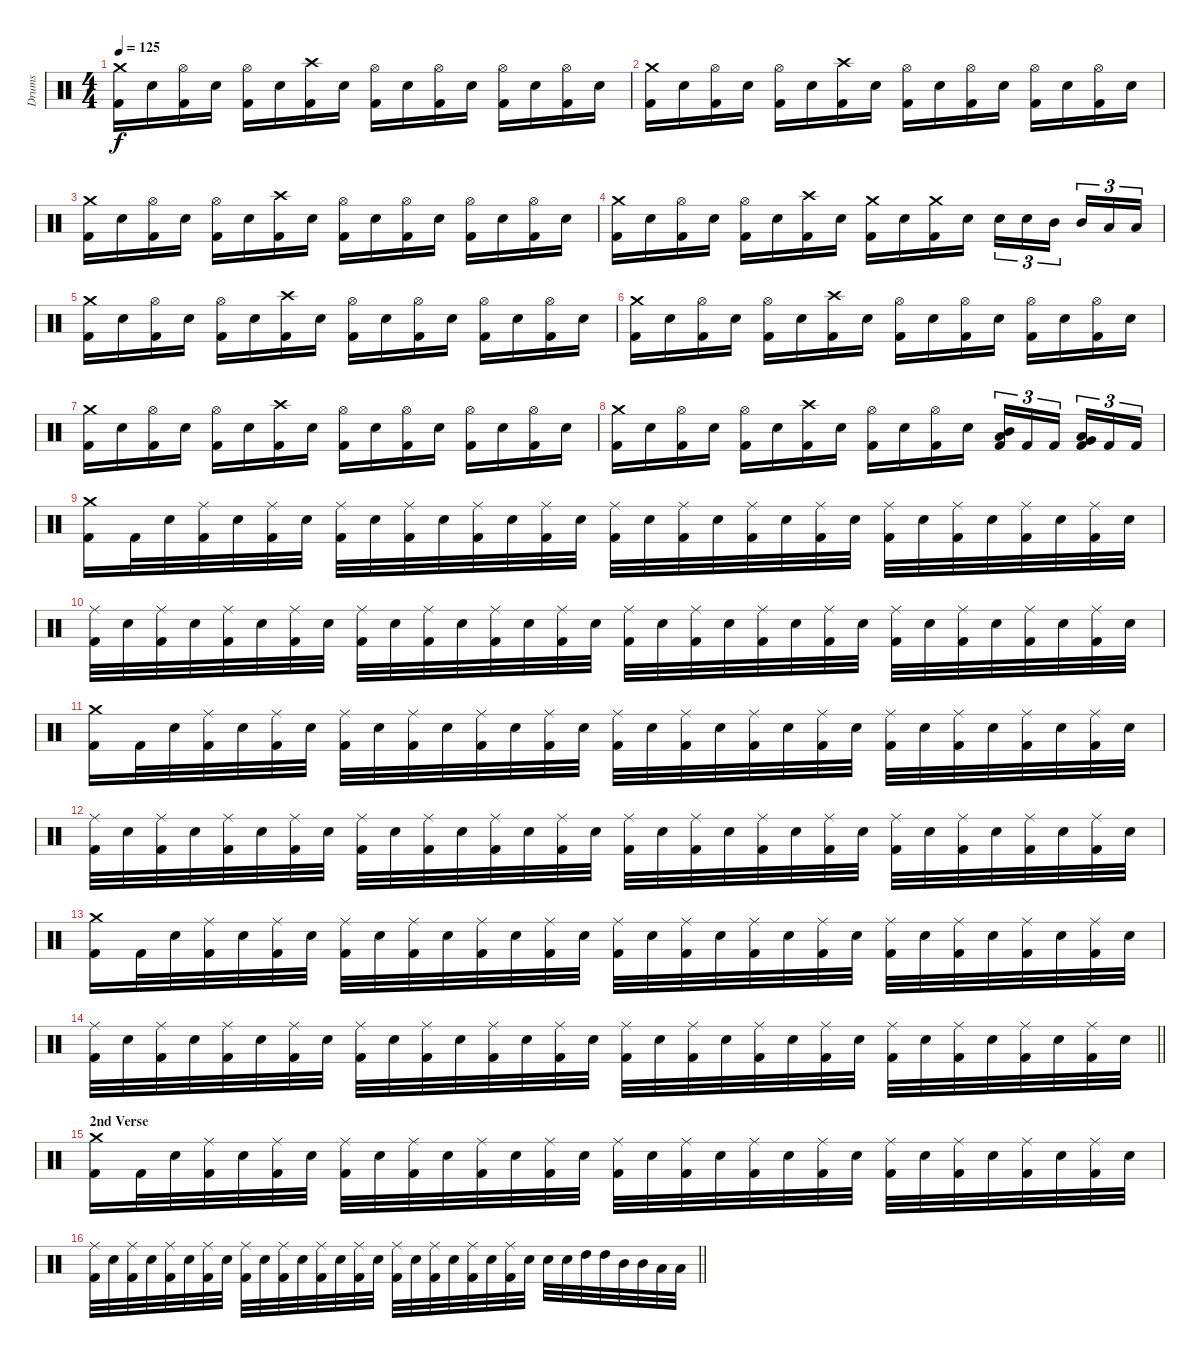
\track ("Drums" "Drums") {instrument percussion}
\staff {score}
\articulation defaults
\ts (4 4)
\tempo 125
\clef neutral
\ks c
("Kick (hit) 2" "Crash medium (hit)").16{dy f} "Electric Snare (hit)".16 ("Kick (hit) 2" "Hi-Hat (open)").16 "Electric Snare (hit)".16 ("Kick (hit) 2" "Hi-Hat (open)").16 "Electric Snare (hit)".16 ("Kick (hit) 2" "Crash high (hit)").16 "Electric Snare (hit)".16 ("Kick (hit) 2" "Hi-Hat (open)").16 "Electric Snare (hit)".16 ("Kick (hit) 2" "Hi-Hat (open)").16 "Electric Snare (hit)".16 ("Kick (hit) 2" "Hi-Hat (open)").16 "Electric Snare (hit)".16 ("Kick (hit) 2" "Hi-Hat (open)").16 "Electric Snare (hit)".16 |
("Kick (hit) 2" "Crash medium (hit)").16 "Electric Snare (hit)".16 ("Kick (hit) 2" "Hi-Hat (open)").16 "Electric Snare (hit)".16 ("Kick (hit) 2" "Hi-Hat (open)").16 "Electric Snare (hit)".16 ("Kick (hit) 2" "Crash high (hit)").16 "Electric Snare (hit)".16 ("Kick (hit) 2" "Hi-Hat (open)").16 "Electric Snare (hit)".16 ("Kick (hit) 2" "Hi-Hat (open)").16 "Electric Snare (hit)".16 ("Kick (hit) 2" "Hi-Hat (open)").16 "Electric Snare (hit)".16 ("Kick (hit) 2" "Hi-Hat (open)").16 "Electric Snare (hit)".16 |
("Kick (hit) 2" "Crash medium (hit)").16 "Electric Snare (hit)".16 ("Kick (hit) 2" "Hi-Hat (open)").16 "Electric Snare (hit)".16 ("Kick (hit) 2" "Hi-Hat (open)").16 "Electric Snare (hit)".16 ("Kick (hit) 2" "Crash high (hit)").16 "Electric Snare (hit)".16 ("Kick (hit) 2" "Hi-Hat (open)").16 "Electric Snare (hit)".16 ("Kick (hit) 2" "Hi-Hat (open)").16 "Electric Snare (hit)".16 ("Kick (hit) 2" "Hi-Hat (open)").16 "Electric Snare (hit)".16 ("Kick (hit) 2" "Hi-Hat (open)").16 "Electric Snare (hit)".16 |
("Kick (hit) 2" "Crash medium (hit)").16 "Electric Snare (hit)".16 ("Kick (hit) 2" "Hi-Hat (open)").16 "Electric Snare (hit)".16 ("Kick (hit) 2" "Hi-Hat (open)").16 "Electric Snare (hit)".16 ("Kick (hit) 2" "Crash high (hit)").16 "Electric Snare (hit)".16 ("Kick (hit) 2" "Crash medium (hit)").16 "Electric Snare (hit)".16 ("Kick (hit) 2" "Crash medium (hit)").16 "Electric Snare (hit)".16 "Electric Snare (hit)".16{tu (3 2)} "Electric Snare (hit)".16{tu (3 2)} "Mid Tom (hit)".16{tu (3 2)} "Mid Tom (hit)".16{tu (3 2)} "Low Tom (hit)".16{tu (3 2)} "Low Tom (hit)".16{tu (3 2)} |
("Kick (hit) 2" "Crash medium (hit)").16 "Electric Snare (hit)".16 ("Kick (hit) 2" "Hi-Hat (open)").16 "Electric Snare (hit)".16 ("Kick (hit) 2" "Hi-Hat (open)").16 "Electric Snare (hit)".16 ("Kick (hit) 2" "Crash high (hit)").16 "Electric Snare (hit)".16 ("Kick (hit) 2" "Hi-Hat (open)").16 "Electric Snare (hit)".16 ("Kick (hit) 2" "Hi-Hat (open)").16 "Electric Snare (hit)".16 ("Kick (hit) 2" "Hi-Hat (open)").16 "Electric Snare (hit)".16 ("Kick (hit) 2" "Hi-Hat (open)").16 "Electric Snare (hit)".16 |
("Kick (hit) 2" "Crash medium (hit)").16 "Electric Snare (hit)".16 ("Kick (hit) 2" "Hi-Hat (open)").16 "Electric Snare (hit)".16 ("Kick (hit) 2" "Hi-Hat (open)").16 "Electric Snare (hit)".16 ("Kick (hit) 2" "Crash high (hit)").16 "Electric Snare (hit)".16 ("Kick (hit) 2" "Hi-Hat (open)").16 "Electric Snare (hit)".16 ("Kick (hit) 2" "Hi-Hat (open)").16 "Electric Snare (hit)".16 ("Kick (hit) 2" "Hi-Hat (open)").16 "Electric Snare (hit)".16 ("Kick (hit) 2" "Hi-Hat (open)").16 "Electric Snare (hit)".16 |
("Kick (hit) 2" "Crash medium (hit)").16 "Electric Snare (hit)".16 ("Kick (hit) 2" "Hi-Hat (open)").16 "Electric Snare (hit)".16 ("Kick (hit) 2" "Hi-Hat (open)").16 "Electric Snare (hit)".16 ("Kick (hit) 2" "Crash high (hit)").16 "Electric Snare (hit)".16 ("Kick (hit) 2" "Hi-Hat (open)").16 "Electric Snare (hit)".16 ("Kick (hit) 2" "Hi-Hat (open)").16 "Electric Snare (hit)".16 ("Kick (hit) 2" "Hi-Hat (open)").16 "Electric Snare (hit)".16 ("Kick (hit) 2" "Hi-Hat (open)").16 "Electric Snare (hit)".16 |
("Kick (hit) 2" "Crash medium (hit)").16 "Electric Snare (hit)".16 ("Kick (hit) 2" "Hi-Hat (open)").16 "Electric Snare (hit)".16 ("Kick (hit) 2" "Hi-Hat (open)").16 "Electric Snare (hit)".16 ("Kick (hit) 2" "Crash high (hit)").16 "Electric Snare (hit)".16 ("Kick (hit) 2" "Hi-Hat (open)").16 "Electric Snare (hit)".16 ("Kick (hit) 2" "Hi-Hat (open)").16 "Electric Snare (hit)".16 ("Kick (hit) 2" "Mid Tom (hit)" "Low Tom (hit)").16{tu (3 2)} "Kick (hit) 2".16{tu (3 2)} "Kick (hit) 2".16{tu (3 2)} ("Kick (hit) 2" "Low Tom (hit)" "Very Low Tom (hit)").16{tu (3 2)} "Kick (hit) 2".16{tu (3 2)} "Kick (hit) 2".16{tu (3 2)} |
("Kick (hit) 2" "Crash medium (hit)").16 "Kick (hit) 2".32 "Electric Snare (hit)".32 ("Kick (hit) 2" "Ride (middle)").32 "Electric Snare (hit)".32 ("Kick (hit) 2" "Ride (middle)").32 "Electric Snare (hit)".32 ("Kick (hit) 2" "Ride (middle)").32 "Electric Snare (hit)".32 ("Kick (hit) 2" "Ride (middle)").32 "Electric Snare (hit)".32 ("Kick (hit) 2" "Ride (middle)").32 "Electric Snare (hit)".32 ("Kick (hit) 2" "Ride (middle)").32 "Electric Snare (hit)".32 ("Kick (hit) 2" "Ride (middle)").32 "Electric Snare (hit)".32 ("Kick (hit) 2" "Ride (middle)").32 "Electric Snare (hit)".32 ("Kick (hit) 2" "Ride (middle)").32 "Electric Snare (hit)".32 ("Kick (hit) 2" "Ride (middle)").32 "Electric Snare (hit)".32 ("Kick (hit) 2" "Ride (middle)").32 "Electric Snare (hit)".32 ("Kick (hit) 2" "Ride (middle)").32 "Electric Snare (hit)".32 ("Kick (hit) 2" "Ride (middle)").32 "Electric Snare (hit)".32 ("Kick (hit) 2" "Ride (middle)").32 "Electric Snare (hit)".32 |
("Kick (hit) 2" "Ride (middle)").32 "Electric Snare (hit)".32 ("Kick (hit) 2" "Ride (middle)").32 "Electric Snare (hit)".32 ("Kick (hit) 2" "Ride (middle)").32 "Electric Snare (hit)".32 ("Kick (hit) 2" "Ride (middle)").32 "Electric Snare (hit)".32 ("Kick (hit) 2" "Ride (middle)").32 "Electric Snare (hit)".32 ("Kick (hit) 2" "Ride (middle)").32 "Electric Snare (hit)".32 ("Kick (hit) 2" "Ride (middle)").32 "Electric Snare (hit)".32 ("Kick (hit) 2" "Ride (middle)").32 "Electric Snare (hit)".32 ("Kick (hit) 2" "Ride (middle)").32 "Electric Snare (hit)".32 ("Kick (hit) 2" "Ride (middle)").32 "Electric Snare (hit)".32 ("Kick (hit) 2" "Ride (middle)").32 "Electric Snare (hit)".32 ("Kick (hit) 2" "Ride (middle)").32 "Electric Snare (hit)".32 ("Kick (hit) 2" "Ride (middle)").32 "Electric Snare (hit)".32 ("Kick (hit) 2" "Ride (middle)").32 "Electric Snare (hit)".32 ("Kick (hit) 2" "Ride (middle)").32 "Electric Snare (hit)".32 ("Kick (hit) 2" "Ride (middle)").32 "Electric Snare (hit)".32 |
("Kick (hit) 2" "Crash medium (hit)").16 "Kick (hit) 2".32 "Electric Snare (hit)".32 ("Kick (hit) 2" "Ride (middle)").32 "Electric Snare (hit)".32 ("Kick (hit) 2" "Ride (middle)").32 "Electric Snare (hit)".32 ("Kick (hit) 2" "Ride (middle)").32 "Electric Snare (hit)".32 ("Kick (hit) 2" "Ride (middle)").32 "Electric Snare (hit)".32 ("Kick (hit) 2" "Ride (middle)").32 "Electric Snare (hit)".32 ("Kick (hit) 2" "Ride (middle)").32 "Electric Snare (hit)".32 ("Kick (hit) 2" "Ride (middle)").32 "Electric Snare (hit)".32 ("Kick (hit) 2" "Ride (middle)").32 "Electric Snare (hit)".32 ("Kick (hit) 2" "Ride (middle)").32 "Electric Snare (hit)".32 ("Kick (hit) 2" "Ride (middle)").32 "Electric Snare (hit)".32 ("Kick (hit) 2" "Ride (middle)").32 "Electric Snare (hit)".32 ("Kick (hit) 2" "Ride (middle)").32 "Electric Snare (hit)".32 ("Kick (hit) 2" "Ride (middle)").32 "Electric Snare (hit)".32 ("Kick (hit) 2" "Ride (middle)").32 "Electric Snare (hit)".32 |
("Kick (hit) 2" "Ride (middle)").32 "Electric Snare (hit)".32 ("Kick (hit) 2" "Ride (middle)").32 "Electric Snare (hit)".32 ("Kick (hit) 2" "Ride (middle)").32 "Electric Snare (hit)".32 ("Kick (hit) 2" "Ride (middle)").32 "Electric Snare (hit)".32 ("Kick (hit) 2" "Ride (middle)").32 "Electric Snare (hit)".32 ("Kick (hit) 2" "Ride (middle)").32 "Electric Snare (hit)".32 ("Kick (hit) 2" "Ride (middle)").32 "Electric Snare (hit)".32 ("Kick (hit) 2" "Ride (middle)").32 "Electric Snare (hit)".32 ("Kick (hit) 2" "Ride (middle)").32 "Electric Snare (hit)".32 ("Kick (hit) 2" "Ride (middle)").32 "Electric Snare (hit)".32 ("Kick (hit) 2" "Ride (middle)").32 "Electric Snare (hit)".32 ("Kick (hit) 2" "Ride (middle)").32 "Electric Snare (hit)".32 ("Kick (hit) 2" "Ride (middle)").32 "Electric Snare (hit)".32 ("Kick (hit) 2" "Ride (middle)").32 "Electric Snare (hit)".32 ("Kick (hit) 2" "Ride (middle)").32 "Electric Snare (hit)".32 ("Kick (hit) 2" "Ride (middle)").32 "Electric Snare (hit)".32 |
("Kick (hit) 2" "Crash medium (hit)").16 "Kick (hit) 2".32 "Electric Snare (hit)".32 ("Kick (hit) 2" "Ride (middle)").32 "Electric Snare (hit)".32 ("Kick (hit) 2" "Ride (middle)").32 "Electric Snare (hit)".32 ("Kick (hit) 2" "Ride (middle)").32 "Electric Snare (hit)".32 ("Kick (hit) 2" "Ride (middle)").32 "Electric Snare (hit)".32 ("Kick (hit) 2" "Ride (middle)").32 "Electric Snare (hit)".32 ("Kick (hit) 2" "Ride (middle)").32 "Electric Snare (hit)".32 ("Kick (hit) 2" "Ride (middle)").32 "Electric Snare (hit)".32 ("Kick (hit) 2" "Ride (middle)").32 "Electric Snare (hit)".32 ("Kick (hit) 2" "Ride (middle)").32 "Electric Snare (hit)".32 ("Kick (hit) 2" "Ride (middle)").32 "Electric Snare (hit)".32 ("Kick (hit) 2" "Ride (middle)").32 "Electric Snare (hit)".32 ("Kick (hit) 2" "Ride (middle)").32 "Electric Snare (hit)".32 ("Kick (hit) 2" "Ride (middle)").32 "Electric Snare (hit)".32 ("Kick (hit) 2" "Ride (middle)").32 "Electric Snare (hit)".32 |
\barLineRight lightlight
("Kick (hit) 2" "Ride (middle)").32 "Electric Snare (hit)".32 ("Kick (hit) 2" "Ride (middle)").32 "Electric Snare (hit)".32 ("Kick (hit) 2" "Ride (middle)").32 "Electric Snare (hit)".32 ("Kick (hit) 2" "Ride (middle)").32 "Electric Snare (hit)".32 ("Kick (hit) 2" "Ride (middle)").32 "Electric Snare (hit)".32 ("Kick (hit) 2" "Ride (middle)").32 "Electric Snare (hit)".32 ("Kick (hit) 2" "Ride (middle)").32 "Electric Snare (hit)".32 ("Kick (hit) 2" "Ride (middle)").32 "Electric Snare (hit)".32 ("Kick (hit) 2" "Ride (middle)").32 "Electric Snare (hit)".32 ("Kick (hit) 2" "Ride (middle)").32 "Electric Snare (hit)".32 ("Kick (hit) 2" "Ride (middle)").32 "Electric Snare (hit)".32 ("Kick (hit) 2" "Ride (middle)").32 "Electric Snare (hit)".32 ("Kick (hit) 2" "Ride (middle)").32 "Electric Snare (hit)".32 ("Kick (hit) 2" "Ride (middle)").32 "Electric Snare (hit)".32 ("Kick (hit) 2" "Ride (middle)").32 "Electric Snare (hit)".32 ("Kick (hit) 2" "Ride (middle)").32 "Electric Snare (hit)".32 |
\section ("" "2nd Verse")
("Kick (hit) 2" "Crash medium (hit)").16 "Kick (hit) 2".32 "Electric Snare (hit)".32 ("Kick (hit) 2" "Ride (middle)").32 "Electric Snare (hit)".32 ("Kick (hit) 2" "Ride (middle)").32 "Electric Snare (hit)".32 ("Kick (hit) 2" "Ride (middle)").32 "Electric Snare (hit)".32 ("Kick (hit) 2" "Ride (middle)").32 "Electric Snare (hit)".32 ("Kick (hit) 2" "Ride (middle)").32 "Electric Snare (hit)".32 ("Kick (hit) 2" "Ride (middle)").32 "Electric Snare (hit)".32 ("Kick (hit) 2" "Ride (middle)").32 "Electric Snare (hit)".32 ("Kick (hit) 2" "Ride (middle)").32 "Electric Snare (hit)".32 ("Kick (hit) 2" "Ride (middle)").32 "Electric Snare (hit)".32 ("Kick (hit) 2" "Ride (middle)").32 "Electric Snare (hit)".32 ("Kick (hit) 2" "Ride (middle)").32 "Electric Snare (hit)".32 ("Kick (hit) 2" "Ride (middle)").32 "Electric Snare (hit)".32 ("Kick (hit) 2" "Ride (middle)").32 "Electric Snare (hit)".32 ("Kick (hit) 2" "Ride (middle)").32 "Electric Snare (hit)".32 |
\barLineRight lightlight
("Kick (hit) 2" "Ride (middle)").32 "Electric Snare (hit)".32 ("Kick (hit) 2" "Ride (middle)").32 "Electric Snare (hit)".32 ("Kick (hit) 2" "Ride (middle)").32 "Electric Snare (hit)".32 ("Kick (hit) 2" "Ride (middle)").32 "Electric Snare (hit)".32 ("Kick (hit) 2" "Ride (middle)").32 "Electric Snare (hit)".32 ("Kick (hit) 2" "Ride (middle)").32 "Electric Snare (hit)".32 ("Kick (hit) 2" "Ride (middle)").32 "Electric Snare (hit)".32 ("Kick (hit) 2" "Ride (middle)").32 "Electric Snare (hit)".32 ("Kick (hit) 2" "Ride (middle)").32 "Electric Snare (hit)".32 ("Kick (hit) 2" "Ride (middle)").32 "Electric Snare (hit)".32 ("Kick (hit) 2" "Ride (middle)").32 "Electric Snare (hit)".32 ("Kick (hit) 2" "Ride (middle)").32 "Electric Snare (hit)".32 "Electric Snare (hit)".32 "Electric Snare (hit)".32 "High Tom (hit)".32 "High Tom (hit)".32 "Mid Tom (hit)".32 "Mid Tom (hit)".32 "Low Tom (hit)".32 "Low Tom (hit)".32
